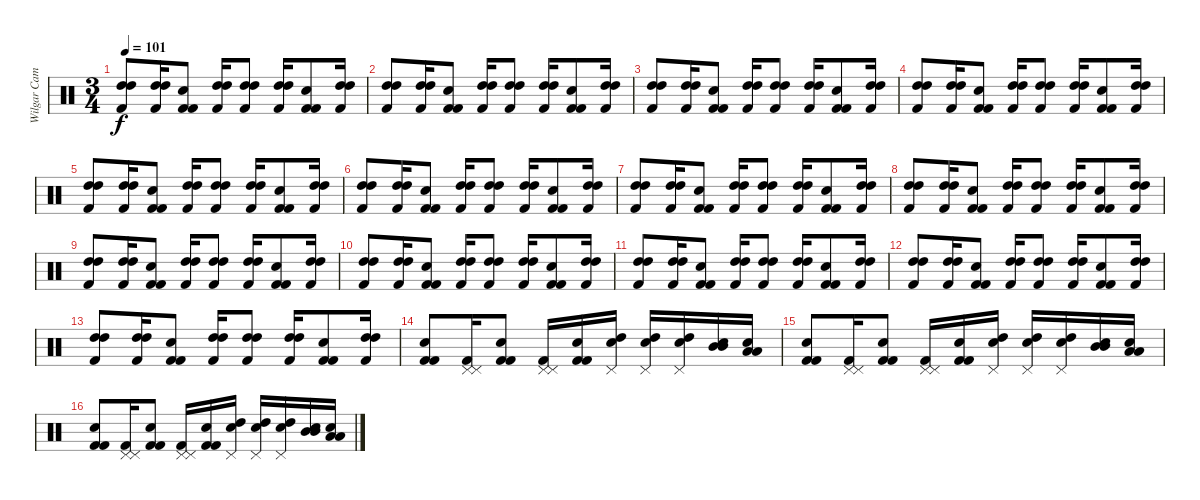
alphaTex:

\track ("Wilgar Campbell" "Wilgar Cam") {instrument percussion}
\staff {score}
\articulation defaults
\ts (3 4)
\tempo 101
\clef neutral
\ks c
("High Tom (hit)" "High Tom (hit)" "Kick (hit) 2").8{dy f} ("High Tom (hit)" "High Tom (hit)" "Kick (hit) 2").16 ("Snare (hit) 2" "Kick (hit) 2" "Kick (hit) 2").8 ("High Tom (hit)" "High Tom (hit)" "Kick (hit) 2").16 ("High Tom (hit)" "High Tom (hit)" "Kick (hit) 2").8 ("High Tom (hit)" "High Tom (hit)" "Kick (hit) 2").16 ("Snare (hit) 2" "Kick (hit) 2" "Kick (hit) 2").8 ("High Tom (hit)" "High Tom (hit)" "Kick (hit) 2").16 |
("High Tom (hit)" "High Tom (hit)" "Kick (hit) 2").8 ("High Tom (hit)" "High Tom (hit)" "Kick (hit) 2").16 ("Snare (hit) 2" "Kick (hit) 2" "Kick (hit) 2").8 ("High Tom (hit)" "High Tom (hit)" "Kick (hit) 2").16 ("High Tom (hit)" "High Tom (hit)" "Kick (hit) 2").8 ("High Tom (hit)" "High Tom (hit)" "Kick (hit) 2").16 ("Snare (hit) 2" "Kick (hit) 2" "Kick (hit) 2").8 ("High Tom (hit)" "High Tom (hit)" "Kick (hit) 2").16 |
("High Tom (hit)" "High Tom (hit)" "Kick (hit) 2").8 ("High Tom (hit)" "High Tom (hit)" "Kick (hit) 2").16 ("Snare (hit) 2" "Kick (hit) 2" "Kick (hit) 2").8 ("High Tom (hit)" "High Tom (hit)" "Kick (hit) 2").16 ("High Tom (hit)" "High Tom (hit)" "Kick (hit) 2").8 ("High Tom (hit)" "High Tom (hit)" "Kick (hit) 2").16 ("Snare (hit) 2" "Kick (hit) 2" "Kick (hit) 2").8 ("High Tom (hit)" "High Tom (hit)" "Kick (hit) 2").16 |
("High Tom (hit)" "High Tom (hit)" "Kick (hit) 2").8 ("High Tom (hit)" "High Tom (hit)" "Kick (hit) 2").16 ("Snare (hit) 2" "Kick (hit) 2" "Kick (hit) 2").8 ("High Tom (hit)" "High Tom (hit)" "Kick (hit) 2").16 ("High Tom (hit)" "High Tom (hit)" "Kick (hit) 2").8 ("High Tom (hit)" "High Tom (hit)" "Kick (hit) 2").16 ("Snare (hit) 2" "Kick (hit) 2" "Kick (hit) 2").8 ("High Tom (hit)" "High Tom (hit)" "Kick (hit) 2").16 |
("High Tom (hit)" "High Tom (hit)" "Kick (hit) 2").8 ("High Tom (hit)" "High Tom (hit)" "Kick (hit) 2").16 ("Snare (hit) 2" "Kick (hit) 2" "Kick (hit) 2").8 ("High Tom (hit)" "High Tom (hit)" "Kick (hit) 2").16 ("High Tom (hit)" "High Tom (hit)" "Kick (hit) 2").8 ("High Tom (hit)" "High Tom (hit)" "Kick (hit) 2").16 ("Snare (hit) 2" "Kick (hit) 2" "Kick (hit) 2").8 ("High Tom (hit)" "High Tom (hit)" "Kick (hit) 2").16 |
("High Tom (hit)" "High Tom (hit)" "Kick (hit) 2").8 ("High Tom (hit)" "High Tom (hit)" "Kick (hit) 2").16 ("Snare (hit) 2" "Kick (hit) 2" "Kick (hit) 2").8 ("High Tom (hit)" "High Tom (hit)" "Kick (hit) 2").16 ("High Tom (hit)" "High Tom (hit)" "Kick (hit) 2").8 ("High Tom (hit)" "High Tom (hit)" "Kick (hit) 2").16 ("Snare (hit) 2" "Kick (hit) 2" "Kick (hit) 2").8 ("High Tom (hit)" "High Tom (hit)" "Kick (hit) 2").16 |
("High Tom (hit)" "High Tom (hit)" "Kick (hit) 2").8 ("High Tom (hit)" "High Tom (hit)" "Kick (hit) 2").16 ("Snare (hit) 2" "Kick (hit) 2" "Kick (hit) 2").8 ("High Tom (hit)" "High Tom (hit)" "Kick (hit) 2").16 ("High Tom (hit)" "High Tom (hit)" "Kick (hit) 2").8 ("High Tom (hit)" "High Tom (hit)" "Kick (hit) 2").16 ("Snare (hit) 2" "Kick (hit) 2" "Kick (hit) 2").8 ("High Tom (hit)" "High Tom (hit)" "Kick (hit) 2").16 |
("High Tom (hit)" "High Tom (hit)" "Kick (hit) 2").8 ("High Tom (hit)" "High Tom (hit)" "Kick (hit) 2").16 ("Snare (hit) 2" "Kick (hit) 2" "Kick (hit) 2").8 ("High Tom (hit)" "High Tom (hit)" "Kick (hit) 2").16 ("High Tom (hit)" "High Tom (hit)" "Kick (hit) 2").8 ("High Tom (hit)" "High Tom (hit)" "Kick (hit) 2").16 ("Snare (hit) 2" "Kick (hit) 2" "Kick (hit) 2").8 ("High Tom (hit)" "High Tom (hit)" "Kick (hit) 2").16 |
("High Tom (hit)" "High Tom (hit)" "Kick (hit) 2").8 ("High Tom (hit)" "High Tom (hit)" "Kick (hit) 2").16 ("Snare (hit) 2" "Kick (hit) 2" "Kick (hit) 2").8 ("High Tom (hit)" "High Tom (hit)" "Kick (hit) 2").16 ("High Tom (hit)" "High Tom (hit)" "Kick (hit) 2").8 ("High Tom (hit)" "High Tom (hit)" "Kick (hit) 2").16 ("Snare (hit) 2" "Kick (hit) 2" "Kick (hit) 2").8 ("High Tom (hit)" "High Tom (hit)" "Kick (hit) 2").16 |
("High Tom (hit)" "High Tom (hit)" "Kick (hit) 2").8 ("High Tom (hit)" "High Tom (hit)" "Kick (hit) 2").16 ("Snare (hit) 2" "Kick (hit) 2" "Kick (hit) 2").8 ("High Tom (hit)" "High Tom (hit)" "Kick (hit) 2").16 ("High Tom (hit)" "High Tom (hit)" "Kick (hit) 2").8 ("High Tom (hit)" "High Tom (hit)" "Kick (hit) 2").16 ("Snare (hit) 2" "Kick (hit) 2" "Kick (hit) 2").8 ("High Tom (hit)" "High Tom (hit)" "Kick (hit) 2").16 |
("High Tom (hit)" "High Tom (hit)" "Kick (hit) 2").8 ("High Tom (hit)" "High Tom (hit)" "Kick (hit) 2").16 ("Snare (hit) 2" "Kick (hit) 2" "Kick (hit) 2").8 ("High Tom (hit)" "High Tom (hit)" "Kick (hit) 2").16 ("High Tom (hit)" "High Tom (hit)" "Kick (hit) 2").8 ("High Tom (hit)" "High Tom (hit)" "Kick (hit) 2").16 ("Snare (hit) 2" "Kick (hit) 2" "Kick (hit) 2").8 ("High Tom (hit)" "High Tom (hit)" "Kick (hit) 2").16 |
("High Tom (hit)" "High Tom (hit)" "Kick (hit) 2").8 ("High Tom (hit)" "High Tom (hit)" "Kick (hit) 2").16 ("Snare (hit) 2" "Kick (hit) 2" "Kick (hit) 2").8 ("High Tom (hit)" "High Tom (hit)" "Kick (hit) 2").16 ("High Tom (hit)" "High Tom (hit)" "Kick (hit) 2").8 ("High Tom (hit)" "High Tom (hit)" "Kick (hit) 2").16 ("Snare (hit) 2" "Kick (hit) 2" "Kick (hit) 2").8 ("High Tom (hit)" "High Tom (hit)" "Kick (hit) 2").16 |
("High Tom (hit)" "High Tom (hit)" "Kick (hit) 2").8 ("High Tom (hit)" "High Tom (hit)" "Kick (hit) 2").16 ("Snare (hit) 2" "Kick (hit) 2" "Kick (hit) 2").8 ("High Tom (hit)" "High Tom (hit)" "Kick (hit) 2").16 ("High Tom (hit)" "High Tom (hit)" "Kick (hit) 2").8 ("High Tom (hit)" "High Tom (hit)" "Kick (hit) 2").16 ("Snare (hit) 2" "Kick (hit) 2" "Kick (hit) 2").8 ("High Tom (hit)" "High Tom (hit)" "Kick (hit) 2").16 |
("Electric Snare (hit)" "Kick (hit) 2" "Kick (hit) 2").8 ("Pedal Hi-Hat (hit)" "Pedal Hi-Hat (hit)" "Kick (hit) 2").16 ("Snare (hit) 2" "Kick (hit) 2" "Kick (hit) 2").8 ("Pedal Hi-Hat (hit)" "Pedal Hi-Hat (hit)" "Kick (hit) 2").16 ("Snare (hit) 2" "Kick (hit) 2" "Kick (hit) 2").16 ("Electric Snare (hit)" "Pedal Hi-Hat (hit)" "High Tom (hit)").16 ("Electric Snare (hit)" "Pedal Hi-Hat (hit)" "High Tom (hit)").16 ("Electric Snare (hit)" "Pedal Hi-Hat (hit)" "High Tom (hit)").16 ("Electric Snare (hit)" "Mid Tom (hit)" "Mid Tom (hit)").16 ("Electric Snare (hit)" "Low Tom (hit)" "Low Tom (hit)").16 |
("Electric Snare (hit)" "Kick (hit) 2" "Kick (hit) 2").8 ("Pedal Hi-Hat (hit)" "Pedal Hi-Hat (hit)" "Kick (hit) 2").16 ("Snare (hit) 2" "Kick (hit) 2" "Kick (hit) 2").8 ("Pedal Hi-Hat (hit)" "Pedal Hi-Hat (hit)" "Kick (hit) 2").16 ("Snare (hit) 2" "Kick (hit) 2" "Kick (hit) 2").16 ("Electric Snare (hit)" "Pedal Hi-Hat (hit)" "High Tom (hit)").16 ("Electric Snare (hit)" "Pedal Hi-Hat (hit)" "High Tom (hit)").16 ("Electric Snare (hit)" "Pedal Hi-Hat (hit)" "High Tom (hit)").16 ("Electric Snare (hit)" "Mid Tom (hit)" "Mid Tom (hit)").16 ("Electric Snare (hit)" "Low Tom (hit)" "Low Tom (hit)").16 |
("Electric Snare (hit)" "Kick (hit) 2" "Kick (hit) 2").8 ("Pedal Hi-Hat (hit)" "Pedal Hi-Hat (hit)" "Kick (hit) 2").16 ("Snare (hit) 2" "Kick (hit) 2" "Kick (hit) 2").8 ("Pedal Hi-Hat (hit)" "Pedal Hi-Hat (hit)" "Kick (hit) 2").16 ("Snare (hit) 2" "Kick (hit) 2" "Kick (hit) 2").16 ("Electric Snare (hit)" "Pedal Hi-Hat (hit)" "High Tom (hit)").16 ("Electric Snare (hit)" "Pedal Hi-Hat (hit)" "High Tom (hit)").16 ("Electric Snare (hit)" "Pedal Hi-Hat (hit)" "High Tom (hit)").16 ("Electric Snare (hit)" "Mid Tom (hit)" "Mid Tom (hit)").16 ("Electric Snare (hit)" "Low Tom (hit)" "Low Tom (hit)").16
